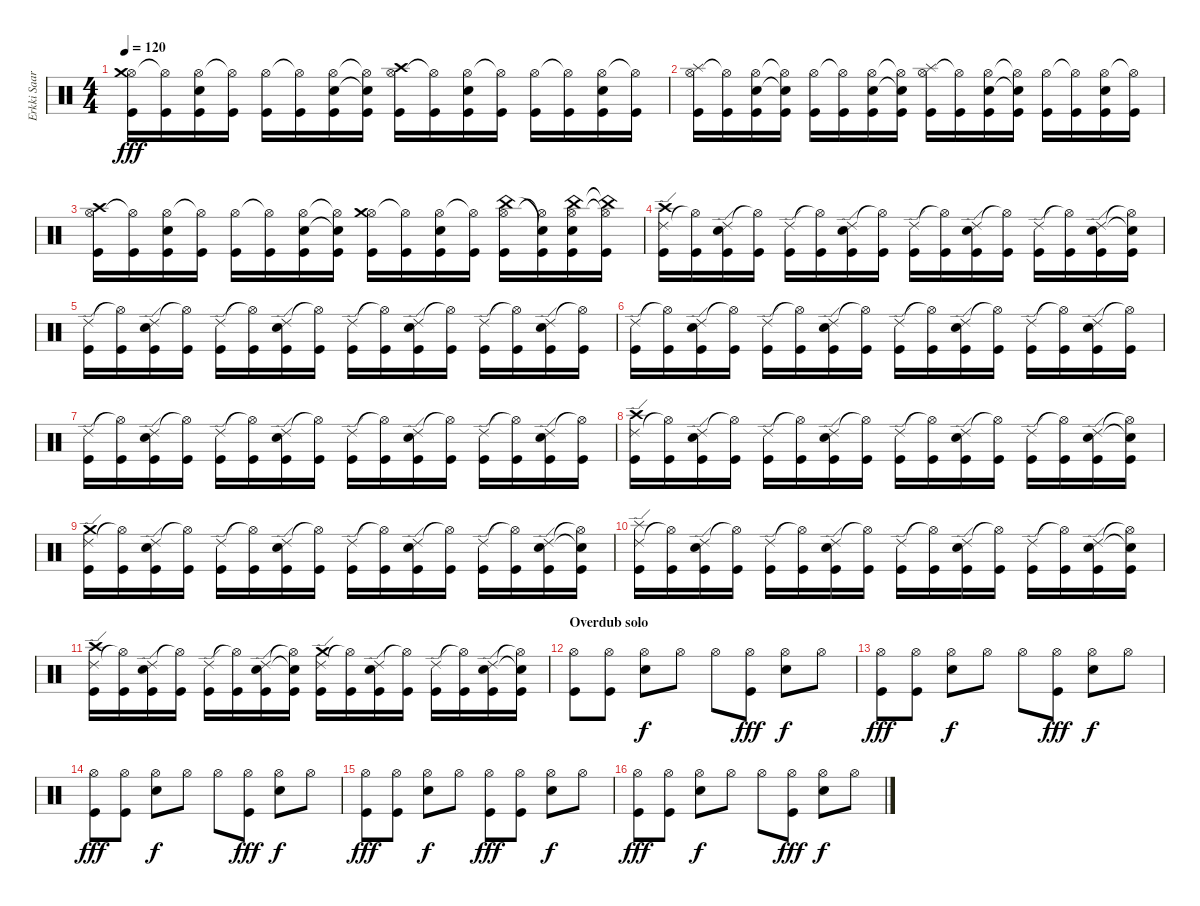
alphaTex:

\track ("Erkki Saarinen" "Erkki Saar") {instrument percussion}
\staff {score}
\articulation defaults
\ts (4 4)
\tempo 120
\clef neutral
\ks c
("Hi-Hat (open)" "Crash medium (hit)" "Kick (hit)").16{dy fff} ("Hi-Hat (open)"{t} "Kick (hit)").16 ("Hi-Hat (open)" "Snare (hit) 2" "Kick (hit)").16 ("Hi-Hat (open)"{t} "Kick (hit)").16 ("Hi-Hat (open)" "Kick (hit)").16 ("Hi-Hat (open)"{t} "Kick (hit)").16 ("Hi-Hat (open)" "Snare (hit) 2" "Kick (hit)").16 ("Hi-Hat (open)"{t} "Snare (hit)"{t} "Kick (hit)").16 ("Hi-Hat (open)" "Crash high (hit)" "Kick (hit)").16 ("Hi-Hat (open)"{t} "Kick (hit)").16 ("Hi-Hat (open)" "Snare (hit) 2" "Kick (hit)").16 ("Hi-Hat (open)"{t} "Kick (hit)").16 ("Hi-Hat (open)" "Kick (hit)").16 ("Hi-Hat (open)"{t} "Kick (hit)").16 ("Hi-Hat (open)" "Snare (hit) 2" "Kick (hit)").16 ("Hi-Hat (open)"{t} "Kick (hit)").16 |
("Hi-Hat (open)" "Splash (hit)" "Kick (hit)").16 ("Hi-Hat (open)"{t} "Kick (hit)").16 ("Hi-Hat (open)" "Snare (hit) 2" "Kick (hit)").16 ("Hi-Hat (open)"{t} "Snare (hit)"{t} "Kick (hit)").16 ("Hi-Hat (open)" "Kick (hit)").16 ("Hi-Hat (open)"{t} "Kick (hit)").16 ("Hi-Hat (open)" "Snare (hit) 2" "Kick (hit)").16 ("Hi-Hat (open)"{t} "Snare (hit)"{t} "Kick (hit)").16 ("Hi-Hat (open)" "Splash (hit)" "Kick (hit)").16 ("Hi-Hat (open)"{t} "Kick (hit)").16 ("Hi-Hat (open)" "Snare (hit) 2" "Kick (hit)").16 ("Hi-Hat (open)"{t} "Snare (hit)"{t} "Kick (hit)").16 ("Hi-Hat (open)" "Kick (hit)").16 ("Hi-Hat (open)"{t} "Kick (hit)").16 ("Hi-Hat (open)" "Snare (hit) 2" "Kick (hit)").16 ("Hi-Hat (open)"{t} "Kick (hit)").16 |
("Hi-Hat (open)" "Crash high (hit)" "Kick (hit)").16 ("Hi-Hat (open)"{t} "Kick (hit)").16 ("Hi-Hat (open)" "Snare (hit) 2" "Kick (hit)").16 ("Hi-Hat (open)"{t} "Kick (hit)").16 ("Hi-Hat (open)" "Kick (hit)").16 ("Hi-Hat (open)"{t} "Kick (hit)").16 ("Hi-Hat (open)" "Snare (hit) 2" "Kick (hit)").16 ("Hi-Hat (open)"{t} "Snare (hit)"{t} "Kick (hit)").16 ("Hi-Hat (open)" "Crash medium (hit)" "Kick (hit)").16 ("Hi-Hat (open)"{t} "Kick (hit)").16 ("Hi-Hat (open)" "Snare (hit) 2" "Kick (hit)").16 ("Hi-Hat (open)"{t} "Kick (hit)").16 ("Hi-Hat (open)" "China (hit)" "Kick (hit)").16 ("Hi-Hat (open)"{t} "Snare (hit)"{t} "Kick (hit)").16 ("Hi-Hat (open)" "China (hit)" "Snare (hit) 2" "Kick (hit)").16 ("Hi-Hat (open)"{t} "China (hit)"{t} "Kick (hit)").16 |
("Ride (edge) 2" "Crash high (hit)" "Kick (hit)").16 ("Hi-Hat (open)"{t} "Kick (hit)").16 ("Ride (edge) 2" "Snare (hit) 2" "Kick (hit)").16 ("Hi-Hat (open)"{t} "Kick (hit)").16 ("Ride (edge) 2" "Kick (hit)").16 ("Hi-Hat (open)"{t} "Kick (hit)").16 ("Ride (edge) 2" "Snare (hit) 2" "Kick (hit)").16 ("Hi-Hat (open)"{t} "Kick (hit)").16 ("Ride (edge) 2" "Kick (hit)").16 ("Hi-Hat (open)"{t} "Kick (hit)").16 ("Ride (edge) 2" "Snare (hit) 2" "Kick (hit)").16 ("Hi-Hat (open)"{t} "Kick (hit)").16 ("Ride (edge) 2" "Kick (hit)").16 ("Hi-Hat (open)"{t} "Kick (hit)").16 ("Ride (edge) 2" "Snare (hit) 2" "Kick (hit)").16 ("Hi-Hat (open)"{t} "Snare (hit)"{t} "Kick (hit)").16 |
("Ride (edge) 2" "Kick (hit)").16 ("Hi-Hat (open)"{t} "Kick (hit)").16 ("Ride (edge) 2" "Snare (hit) 2" "Kick (hit)").16 ("Hi-Hat (open)"{t} "Kick (hit)").16 ("Ride (edge) 2" "Kick (hit)").16 ("Hi-Hat (open)"{t} "Kick (hit)").16 ("Ride (edge) 2" "Snare (hit) 2" "Kick (hit)").16 ("Hi-Hat (open)"{t} "Kick (hit)").16 ("Ride (edge) 2" "Kick (hit)").16 ("Hi-Hat (open)"{t} "Kick (hit)").16 ("Ride (edge) 2" "Snare (hit) 2" "Kick (hit)").16 ("Hi-Hat (open)"{t} "Kick (hit)").16 ("Ride (edge) 2" "Kick (hit)").16 ("Hi-Hat (open)"{t} "Kick (hit)").16 ("Ride (edge) 2" "Snare (hit) 2" "Kick (hit)").16 ("Hi-Hat (open)"{t} "Kick (hit)").16 |
("Ride (edge) 2" "Kick (hit)").16 ("Hi-Hat (open)"{t} "Kick (hit)").16 ("Ride (edge) 2" "Snare (hit) 2" "Kick (hit)").16 ("Hi-Hat (open)"{t} "Kick (hit)").16 ("Ride (edge) 2" "Kick (hit)").16 ("Hi-Hat (open)"{t} "Kick (hit)").16 ("Ride (edge) 2" "Snare (hit) 2" "Kick (hit)").16 ("Hi-Hat (open)"{t} "Kick (hit)").16 ("Ride (edge) 2" "Kick (hit)").16 ("Hi-Hat (open)"{t} "Kick (hit)").16 ("Ride (edge) 2" "Snare (hit) 2" "Kick (hit)").16 ("Hi-Hat (open)"{t} "Kick (hit)").16 ("Ride (edge) 2" "Kick (hit)").16 ("Hi-Hat (open)"{t} "Kick (hit)").16 ("Ride (edge) 2" "Snare (hit) 2" "Kick (hit)").16 ("Hi-Hat (open)"{t} "Kick (hit)").16 |
("Ride (edge) 2" "Kick (hit)").16 ("Hi-Hat (open)"{t} "Kick (hit)").16 ("Ride (edge) 2" "Snare (hit) 2" "Kick (hit)").16 ("Hi-Hat (open)"{t} "Kick (hit)").16 ("Ride (edge) 2" "Kick (hit)").16 ("Hi-Hat (open)"{t} "Kick (hit)").16 ("Ride (edge) 2" "Snare (hit) 2" "Kick (hit)").16 ("Hi-Hat (open)"{t} "Kick (hit)").16 ("Ride (edge) 2" "Kick (hit)").16 ("Hi-Hat (open)"{t} "Kick (hit)").16 ("Ride (edge) 2" "Snare (hit) 2" "Kick (hit)").16 ("Hi-Hat (open)"{t} "Kick (hit)").16 ("Ride (edge) 2" "Kick (hit)").16 ("Hi-Hat (open)"{t} "Kick (hit)").16 ("Ride (edge) 2" "Snare (hit) 2" "Kick (hit)").16 ("Hi-Hat (open)"{t} "Kick (hit)").16 |
("Ride (edge) 2" "Crash high (hit)" "Kick (hit)").16 ("Hi-Hat (open)"{t} "Kick (hit)").16 ("Ride (edge) 2" "Snare (hit) 2" "Kick (hit)").16 ("Hi-Hat (open)"{t} "Kick (hit)").16 ("Ride (edge) 2" "Kick (hit)").16 ("Hi-Hat (open)"{t} "Kick (hit)").16 ("Ride (edge) 2" "Snare (hit) 2" "Kick (hit)").16 ("Hi-Hat (open)"{t} "Kick (hit)").16 ("Ride (edge) 2" "Kick (hit)").16 ("Hi-Hat (open)"{t} "Kick (hit)").16 ("Ride (edge) 2" "Snare (hit) 2" "Kick (hit)").16 ("Hi-Hat (open)"{t} "Kick (hit)").16 ("Ride (edge) 2" "Kick (hit)").16 ("Hi-Hat (open)"{t} "Kick (hit)").16 ("Ride (edge) 2" "Snare (hit) 2" "Kick (hit)").16 ("Hi-Hat (open)"{t} "Snare (hit)"{t} "Kick (hit)").16 |
("Ride (edge) 2" "Crash medium (hit)" "Kick (hit)").16 ("Hi-Hat (open)"{t} "Kick (hit)").16 ("Ride (edge) 2" "Snare (hit) 2" "Kick (hit)").16 ("Hi-Hat (open)"{t} "Kick (hit)").16 ("Ride (edge) 2" "Kick (hit)").16 ("Hi-Hat (open)"{t} "Kick (hit)").16 ("Ride (edge) 2" "Snare (hit) 2" "Kick (hit)").16 ("Hi-Hat (open)"{t} "Kick (hit)").16 ("Ride (edge) 2" "Kick (hit)").16 ("Hi-Hat (open)"{t} "Kick (hit)").16 ("Ride (edge) 2" "Snare (hit) 2" "Kick (hit)").16 ("Hi-Hat (open)"{t} "Kick (hit)").16 ("Ride (edge) 2" "Kick (hit)").16 ("Hi-Hat (open)"{t} "Kick (hit)").16 ("Ride (edge) 2" "Snare (hit) 2" "Kick (hit)").16 ("Hi-Hat (open)"{t} "Snare (hit)"{t} "Kick (hit)").16 |
("Ride (edge) 2" "Splash (hit)" "Kick (hit)").16 ("Hi-Hat (open)"{t} "Kick (hit)").16 ("Ride (edge) 2" "Snare (hit) 2" "Kick (hit)").16 ("Hi-Hat (open)"{t} "Kick (hit)").16 ("Ride (edge) 2" "Kick (hit)").16 ("Hi-Hat (open)"{t} "Kick (hit)").16 ("Ride (edge) 2" "Snare (hit) 2" "Kick (hit)").16 ("Hi-Hat (open)"{t} "Kick (hit)").16 ("Ride (edge) 2" "Kick (hit)").16 ("Hi-Hat (open)"{t} "Kick (hit)").16 ("Ride (edge) 2" "Snare (hit) 2" "Kick (hit)").16 ("Hi-Hat (open)"{t} "Kick (hit)").16 ("Ride (edge) 2" "Kick (hit)").16 ("Hi-Hat (open)"{t} "Kick (hit)").16 ("Ride (edge) 2" "Snare (hit) 2" "Kick (hit)").16 ("Hi-Hat (open)"{t} "Snare (hit)"{t} "Kick (hit)").16 |
("Ride (edge) 2" "Crash high (hit)" "Kick (hit)").16 ("Hi-Hat (open)"{t} "Kick (hit)").16 ("Ride (edge) 2" "Snare (hit) 2" "Kick (hit)").16 ("Hi-Hat (open)"{t} "Kick (hit)").16 ("Ride (edge) 2" "Kick (hit)").16 ("Hi-Hat (open)"{t} "Kick (hit)").16 ("Ride (edge) 2" "Snare (hit) 2" "Kick (hit)").16 ("Hi-Hat (open)"{t} "Snare (hit)"{t} "Kick (hit)").16 ("Ride (edge) 2" "Crash medium (hit)" "Kick (hit)").16 ("Hi-Hat (open)"{t} "Kick (hit)").16 ("Ride (edge) 2" "Snare (hit) 2" "Kick (hit)").16 ("Hi-Hat (open)"{t} "Kick (hit)").16 ("Ride (edge) 2" "Kick (hit)").16 ("Hi-Hat (open)"{t} "Kick (hit)").16 ("Ride (edge) 2" "Snare (hit) 2" "Kick (hit)").16 ("Hi-Hat (open)"{t} "Snare (hit)"{t} "Kick (hit)").16 |
\section ("" "Overdub solo")
("Hi-Hat (open)" "Kick (hit)").8 ("Hi-Hat (open)" "Kick (hit)").8 ("Hi-Hat (open)" "Snare (hit) 2").8{dy f} "Hi-Hat (open)".8 "Hi-Hat (open)".8 ("Hi-Hat (open)" "Kick (hit)").8{dy fff} ("Hi-Hat (open)" "Snare (hit) 2").8{dy f} "Hi-Hat (open)".8 |
("Hi-Hat (open)" "Kick (hit)").8{dy fff} ("Hi-Hat (open)" "Kick (hit)").8 ("Hi-Hat (open)" "Snare (hit) 2").8{dy f} "Hi-Hat (open)".8 "Hi-Hat (open)".8 ("Hi-Hat (open)" "Kick (hit)").8{dy fff} ("Hi-Hat (open)" "Snare (hit) 2").8{dy f} "Hi-Hat (open)".8 |
("Hi-Hat (open)" "Kick (hit)").8{dy fff} ("Hi-Hat (open)" "Kick (hit)").8 ("Hi-Hat (open)" "Snare (hit) 2").8{dy f} "Hi-Hat (open)".8 "Hi-Hat (open)".8 ("Hi-Hat (open)" "Kick (hit)").8{dy fff} ("Hi-Hat (open)" "Snare (hit) 2").8{dy f} "Hi-Hat (open)".8 |
("Hi-Hat (open)" "Kick (hit)").8{dy fff} ("Hi-Hat (open)" "Kick (hit)").8 ("Hi-Hat (open)" "Snare (hit) 2").8{dy f} "Hi-Hat (open)".8 ("Hi-Hat (open)" "Kick (hit)").8{dy fff} ("Hi-Hat (open)" "Kick (hit)").8 ("Hi-Hat (open)" "Snare (hit) 2").8{dy f} "Hi-Hat (open)".8 |
("Hi-Hat (open)" "Kick (hit)").8{dy fff} ("Hi-Hat (open)" "Kick (hit)").8 ("Hi-Hat (open)" "Snare (hit) 2").8{dy f} "Hi-Hat (open)".8 "Hi-Hat (open)".8 ("Hi-Hat (open)" "Kick (hit)").8{dy fff} ("Hi-Hat (open)" "Snare (hit) 2").8{dy f} "Hi-Hat (open)".8
